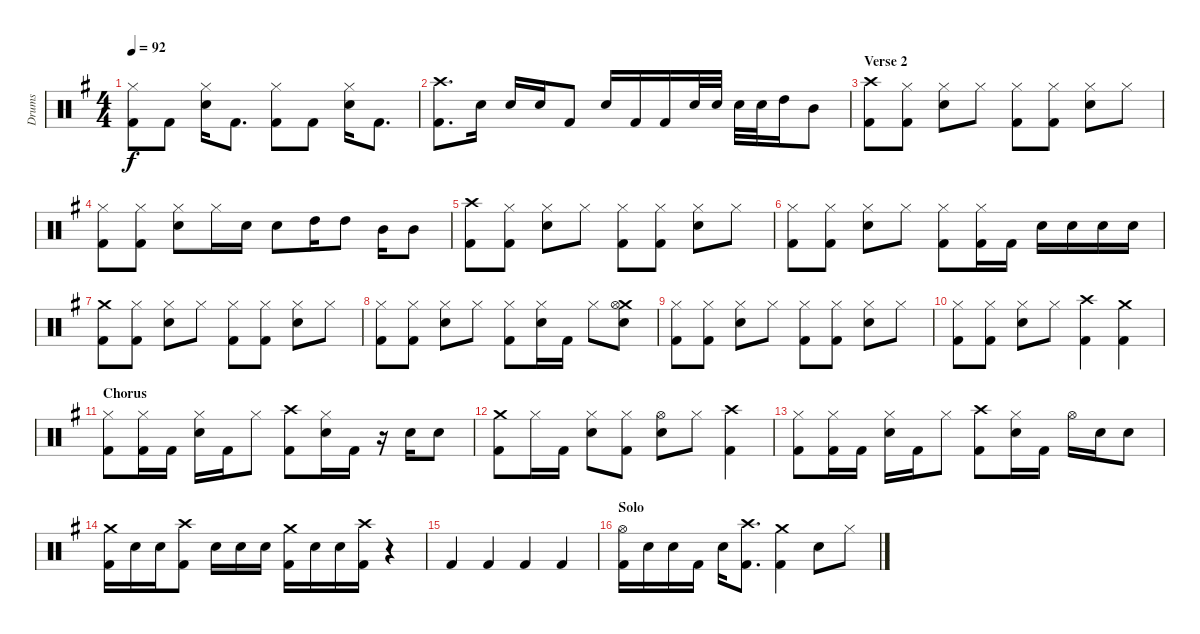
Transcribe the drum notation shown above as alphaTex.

\track ("Drums" "Drums") {instrument percussion}
\staff {score}
\articulation defaults
\ts (4 4)
\tempo 92
\clef neutral
\ks eminor
("Hi-Hat (closed)" "Kick (hit) 2").8{dy f} "Kick (hit) 2".8 ("Hi-Hat (closed)" "Snare (hit) 2").16 "Kick (hit) 2".8{d} ("Hi-Hat (closed)" "Kick (hit) 2").8 "Kick (hit) 2".8 ("Hi-Hat (closed)" "Snare (hit) 2").16 "Kick (hit) 2".8{d} |
("Crash high (hit)" "Kick (hit) 2").8{d} "Snare (hit) 2".16 "Snare (hit) 2".16 "Snare (hit) 2".16 "Kick (hit) 2".8 "Snare (hit) 2".16 "Kick (hit) 2".16 "Kick (hit) 2".16 "Snare (hit) 2".32 "Snare (hit) 2".32 "Snare (hit) 2".32 "Snare (hit) 2".32 "High Tom (hit)".16 "Mid Tom (hit)".8 |
\section ("" "Verse 2")
("Crash high (hit)" "Kick (hit) 2").8 ("Hi-Hat (closed)" "Kick (hit) 2").8 ("Hi-Hat (closed)" "Snare (hit) 2").8 "Hi-Hat (closed)".8 ("Hi-Hat (closed)" "Kick (hit) 2").8 ("Hi-Hat (closed)" "Kick (hit) 2").8 ("Hi-Hat (closed)" "Snare (hit) 2").8 "Hi-Hat (closed)".8 |
("Hi-Hat (closed)" "Kick (hit) 2").8 ("Hi-Hat (closed)" "Kick (hit) 2").8 ("Hi-Hat (closed)" "Snare (hit) 2").8 "Hi-Hat (closed)".16 "Snare (hit) 2".16 "Snare (hit) 2".8 "High Tom (hit)".16 "High Tom (hit)".8 "Mid Tom (hit)".16 "Mid Tom (hit)".8 |
("Crash high (hit)" "Kick (hit) 2").8 ("Hi-Hat (closed)" "Kick (hit) 2").8 ("Hi-Hat (closed)" "Snare (hit) 2").8 "Hi-Hat (closed)".8 ("Hi-Hat (closed)" "Kick (hit) 2").8 ("Hi-Hat (closed)" "Kick (hit) 2").8 ("Hi-Hat (closed)" "Snare (hit) 2").8 "Hi-Hat (closed)".8 |
("Hi-Hat (closed)" "Kick (hit) 2").8 ("Hi-Hat (closed)" "Kick (hit) 2").8 ("Hi-Hat (closed)" "Snare (hit) 2").8 "Hi-Hat (closed)".8 ("Hi-Hat (closed)" "Kick (hit) 2").8 ("Hi-Hat (closed)" "Kick (hit) 2").16 "Kick (hit) 2".16 "Snare (hit) 2".16 "Snare (hit) 2".16 "Snare (hit) 2".16 "Snare (hit) 2".16 |
("Crash medium (hit)" "Kick (hit) 2").8 ("Hi-Hat (closed)" "Kick (hit) 2").8 ("Hi-Hat (closed)" "Snare (hit) 2").8 "Hi-Hat (closed)".8 ("Hi-Hat (closed)" "Kick (hit) 2").8 ("Hi-Hat (closed)" "Kick (hit) 2").8 ("Hi-Hat (closed)" "Snare (hit) 2").8 "Hi-Hat (closed)".8 |
("Hi-Hat (closed)" "Kick (hit) 2").8 ("Hi-Hat (closed)" "Kick (hit) 2").8 ("Hi-Hat (closed)" "Snare (hit) 2").8 "Hi-Hat (closed)".8 ("Hi-Hat (closed)" "Kick (hit) 2").8 ("Hi-Hat (closed)" "Snare (hit) 2").16 "Kick (hit) 2".16 "Hi-Hat (closed)".8 ("Crash medium (hit)" "Hi-Hat (open)" "Snare (hit) 2").8 |
("Hi-Hat (closed)" "Kick (hit) 2").8 ("Hi-Hat (closed)" "Kick (hit) 2").8 ("Hi-Hat (closed)" "Snare (hit) 2").8 "Hi-Hat (closed)".8 ("Hi-Hat (closed)" "Kick (hit) 2").8 ("Hi-Hat (closed)" "Kick (hit) 2").8 ("Hi-Hat (closed)" "Snare (hit) 2").8 "Hi-Hat (closed)".8 |
("Hi-Hat (closed)" "Kick (hit) 2").8 ("Hi-Hat (closed)" "Kick (hit) 2").8 ("Hi-Hat (closed)" "Snare (hit) 2").8 "Hi-Hat (closed)".8 ("Crash high (hit)" "Kick (hit) 2").4 ("Crash medium (hit)" "Kick (hit) 2").4 |
\section ("" "Chorus")
("Hi-Hat (closed)" "Kick (hit) 2").8 ("Hi-Hat (closed)" "Kick (hit) 2").16 "Kick (hit) 2".16 ("Hi-Hat (closed)" "Snare (hit) 2").16 "Kick (hit) 2".16 "Hi-Hat (closed)".8 ("Crash high (hit)" "Kick (hit) 2").8 ("Hi-Hat (closed)" "Snare (hit) 2").16 "Kick (hit) 2".16 r.16 "Snare (hit) 2".16 "Snare (hit) 2".8 |
("Crash medium (hit)" "Kick (hit) 2").8 "Hi-Hat (closed)".16 "Kick (hit) 2".16 ("Hi-Hat (closed)" "Snare (hit) 2").8 ("Hi-Hat (closed)" "Kick (hit) 2").8 ("Hi-Hat (open)" "Snare (hit) 2").8 "Hi-Hat (closed)".8 ("Crash high (hit)" "Kick (hit) 2").4 |
("Hi-Hat (closed)" "Kick (hit) 2").8 ("Hi-Hat (closed)" "Kick (hit) 2").16 "Kick (hit) 2".16 ("Hi-Hat (closed)" "Snare (hit) 2").16 "Kick (hit) 2".16 "Hi-Hat (closed)".8 ("Crash high (hit)" "Kick (hit) 2").8 ("Hi-Hat (closed)" "Snare (hit) 2").16 "Kick (hit) 2".16 "Hi-Hat (open)".16 "Snare (hit) 2".16 "Snare (hit) 2".8 |
("Crash medium (hit)" "Kick (hit) 2").16 "Snare (hit) 2".16 "Snare (hit) 2".16 ("Crash high (hit)" "Kick (hit) 2").8 "Snare (hit) 2".16 "Snare (hit) 2".16 "Snare (hit) 2".16 ("Crash medium (hit)" "Kick (hit) 2").16 "Snare (hit) 2".16 "Snare (hit) 2".16 ("Crash high (hit)" "Kick (hit) 2").16 r.4 |
"Kick (hit) 2".4 "Kick (hit) 2".4 "Kick (hit) 2".4 "Kick (hit) 2".4 |
\section ("" "Solo")
("Hi-Hat (open)" "Kick (hit) 2").16 "Snare (hit) 2".16 "Snare (hit) 2".16 "Kick (hit) 2".16 "Snare (hit) 2".16 ("Crash high (hit)" "Kick (hit) 2").8{d} ("Crash medium (hit)" "Kick (hit) 2").4 "Snare (hit) 2".8 "Hi-Hat (closed)".8
